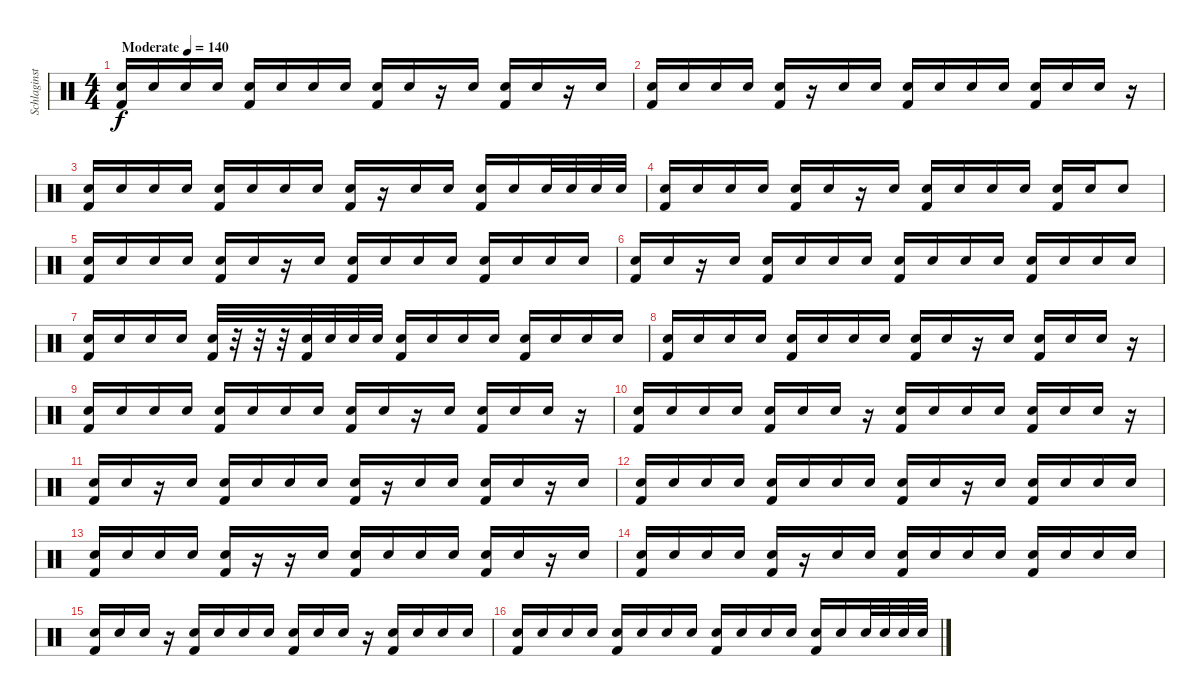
\track ("Schlaginstrumente - Auswahl" "Schlaginst") {instrument percussion}
\staff {score}
\articulation defaults
\ts (4 4)
\tempo (140 "Moderate")
\clef neutral
\ks c
("Electric Snare (hit)" "Kick (hit) 2").16{dy f} "Electric Snare (hit)".16 "Electric Snare (hit)".16 "Electric Snare (hit)".16 ("Electric Snare (hit)" "Kick (hit) 2").16 "Electric Snare (hit)".16 "Electric Snare (hit)".16 "Electric Snare (hit)".16 ("Electric Snare (hit)" "Kick (hit) 2").16 "Electric Snare (hit)".16 r.16 "Electric Snare (hit)".16 ("Electric Snare (hit)" "Kick (hit) 2").16 "Electric Snare (hit)".16 r.16 "Electric Snare (hit)".16 |
("Electric Snare (hit)" "Kick (hit) 2").16 "Electric Snare (hit)".16 "Electric Snare (hit)".16 "Electric Snare (hit)".16 ("Electric Snare (hit)" "Kick (hit) 2").16 r.16 "Electric Snare (hit)".16 "Electric Snare (hit)".16 ("Electric Snare (hit)" "Kick (hit) 2").16 "Electric Snare (hit)".16 "Electric Snare (hit)".16 "Electric Snare (hit)".16 ("Electric Snare (hit)" "Kick (hit) 2").16 "Electric Snare (hit)".16 "Electric Snare (hit)".16 r.16 |
("Electric Snare (hit)" "Kick (hit) 2").16 "Electric Snare (hit)".16 "Electric Snare (hit)".16 "Electric Snare (hit)".16 ("Electric Snare (hit)" "Kick (hit) 2").16 "Electric Snare (hit)".16 "Electric Snare (hit)".16 "Electric Snare (hit)".16 ("Electric Snare (hit)" "Kick (hit) 2").16 r.16 "Electric Snare (hit)".16 "Electric Snare (hit)".16 ("Electric Snare (hit)" "Kick (hit) 2").16 "Electric Snare (hit)".16 "Electric Snare (hit)".32 "Electric Snare (hit)".32 "Electric Snare (hit)".32 "Electric Snare (hit)".32 |
("Electric Snare (hit)" "Kick (hit) 2").16 "Electric Snare (hit)".16 "Electric Snare (hit)".16 "Electric Snare (hit)".16 ("Electric Snare (hit)" "Kick (hit) 2").16 "Electric Snare (hit)".16 r.16 "Electric Snare (hit)".16 ("Electric Snare (hit)" "Kick (hit) 2").16 "Electric Snare (hit)".16 "Electric Snare (hit)".16 "Electric Snare (hit)".16 ("Electric Snare (hit)" "Kick (hit) 2").16 "Electric Snare (hit)".16 "Electric Snare (hit)".8 |
("Electric Snare (hit)" "Kick (hit) 2").16 "Electric Snare (hit)".16 "Electric Snare (hit)".16 "Electric Snare (hit)".16 ("Electric Snare (hit)" "Kick (hit) 2").16 "Electric Snare (hit)".16 r.16 "Electric Snare (hit)".16 ("Electric Snare (hit)" "Kick (hit) 2").16 "Electric Snare (hit)".16 "Electric Snare (hit)".16 "Electric Snare (hit)".16 ("Electric Snare (hit)" "Kick (hit) 2").16 "Electric Snare (hit)".16 "Electric Snare (hit)".16 "Electric Snare (hit)".16 |
("Electric Snare (hit)" "Kick (hit) 2").16 "Electric Snare (hit)".16 r.16 "Electric Snare (hit)".16 ("Electric Snare (hit)" "Kick (hit) 2").16 "Electric Snare (hit)".16 "Electric Snare (hit)".16 "Electric Snare (hit)".16 ("Electric Snare (hit)" "Kick (hit) 2").16 "Electric Snare (hit)".16 "Electric Snare (hit)".16 "Electric Snare (hit)".16 ("Electric Snare (hit)" "Kick (hit) 2").16 "Electric Snare (hit)".16 "Electric Snare (hit)".16 "Electric Snare (hit)".16 |
("Electric Snare (hit)" "Kick (hit) 2").16 "Electric Snare (hit)".16 "Electric Snare (hit)".16 "Electric Snare (hit)".16 ("Electric Snare (hit)" "Kick (hit) 2").32 r.32 r.32 r.32 ("Electric Snare (hit)" "Kick (hit) 2").32 "Electric Snare (hit)".32 "Electric Snare (hit)".32 "Electric Snare (hit)".32 ("Electric Snare (hit)" "Kick (hit) 2").16 "Electric Snare (hit)".16 "Electric Snare (hit)".16 "Electric Snare (hit)".16 ("Electric Snare (hit)" "Kick (hit) 2").16 "Electric Snare (hit)".16 "Electric Snare (hit)".16 "Electric Snare (hit)".16 |
("Electric Snare (hit)" "Kick (hit) 2").16 "Electric Snare (hit)".16 "Electric Snare (hit)".16 "Electric Snare (hit)".16 ("Electric Snare (hit)" "Kick (hit) 2").16 "Electric Snare (hit)".16 "Electric Snare (hit)".16 "Electric Snare (hit)".16 ("Electric Snare (hit)" "Kick (hit) 2").16 "Electric Snare (hit)".16 r.16 "Electric Snare (hit)".16 ("Electric Snare (hit)" "Kick (hit) 2").16 "Electric Snare (hit)".16 "Electric Snare (hit)".16 r.16 |
("Electric Snare (hit)" "Kick (hit) 2").16 "Electric Snare (hit)".16 "Electric Snare (hit)".16 "Electric Snare (hit)".16 ("Electric Snare (hit)" "Kick (hit) 2").16 "Electric Snare (hit)".16 "Electric Snare (hit)".16 "Electric Snare (hit)".16 ("Electric Snare (hit)" "Kick (hit) 2").16 "Electric Snare (hit)".16 r.16 "Electric Snare (hit)".16 ("Electric Snare (hit)" "Kick (hit) 2").16 "Electric Snare (hit)".16 "Electric Snare (hit)".16 r.16 |
("Electric Snare (hit)" "Kick (hit) 2").16 "Electric Snare (hit)".16 "Electric Snare (hit)".16 "Electric Snare (hit)".16 ("Electric Snare (hit)" "Kick (hit) 2").16 "Electric Snare (hit)".16 "Electric Snare (hit)".16 r.16 ("Electric Snare (hit)" "Kick (hit) 2").16 "Electric Snare (hit)".16 "Electric Snare (hit)".16 "Electric Snare (hit)".16 ("Electric Snare (hit)" "Kick (hit) 2").16 "Electric Snare (hit)".16 "Electric Snare (hit)".16 r.16 |
("Electric Snare (hit)" "Kick (hit) 2").16 "Electric Snare (hit)".16 r.16 "Electric Snare (hit)".16 ("Electric Snare (hit)" "Kick (hit) 2").16 "Electric Snare (hit)".16 "Electric Snare (hit)".16 "Electric Snare (hit)".16 ("Electric Snare (hit)" "Kick (hit) 2").16 r.16 "Electric Snare (hit)".16 "Electric Snare (hit)".16 ("Electric Snare (hit)" "Kick (hit) 2").16 "Electric Snare (hit)".16 r.16 "Electric Snare (hit)".16 |
("Electric Snare (hit)" "Kick (hit) 2").16 "Electric Snare (hit)".16 "Electric Snare (hit)".16 "Electric Snare (hit)".16 ("Electric Snare (hit)" "Kick (hit) 2").16 "Electric Snare (hit)".16 "Electric Snare (hit)".16 "Electric Snare (hit)".16 ("Electric Snare (hit)" "Kick (hit) 2").16 "Electric Snare (hit)".16 r.16 "Electric Snare (hit)".16 ("Electric Snare (hit)" "Kick (hit) 2").16 "Electric Snare (hit)".16 "Electric Snare (hit)".16 "Electric Snare (hit)".16 |
("Electric Snare (hit)" "Kick (hit) 2").16 "Electric Snare (hit)".16 "Electric Snare (hit)".16 "Electric Snare (hit)".16 ("Electric Snare (hit)" "Kick (hit) 2").16 r.16 r.16 "Electric Snare (hit)".16 ("Electric Snare (hit)" "Kick (hit) 2").16 "Electric Snare (hit)".16 "Electric Snare (hit)".16 "Electric Snare (hit)".16 ("Electric Snare (hit)" "Kick (hit) 2").16 "Electric Snare (hit)".16 r.16 "Electric Snare (hit)".16 |
("Electric Snare (hit)" "Kick (hit) 2").16 "Electric Snare (hit)".16 "Electric Snare (hit)".16 "Electric Snare (hit)".16 ("Electric Snare (hit)" "Kick (hit) 2").16 r.16 "Electric Snare (hit)".16 "Electric Snare (hit)".16 ("Electric Snare (hit)" "Kick (hit) 2").16 "Electric Snare (hit)".16 "Electric Snare (hit)".16 "Electric Snare (hit)".16 ("Electric Snare (hit)" "Kick (hit) 2").16 "Electric Snare (hit)".16 "Electric Snare (hit)".16 "Electric Snare (hit)".16 |
("Electric Snare (hit)" "Kick (hit) 2").16 "Electric Snare (hit)".16 "Electric Snare (hit)".16 r.16 ("Electric Snare (hit)" "Kick (hit) 2").16 "Electric Snare (hit)".16 "Electric Snare (hit)".16 "Electric Snare (hit)".16 ("Electric Snare (hit)" "Kick (hit) 2").16 "Electric Snare (hit)".16 "Electric Snare (hit)".16 r.16 ("Electric Snare (hit)" "Kick (hit) 2").16 "Electric Snare (hit)".16 "Electric Snare (hit)".16 "Electric Snare (hit)".16 |
("Electric Snare (hit)" "Kick (hit) 2").16 "Electric Snare (hit)".16 "Electric Snare (hit)".16 "Electric Snare (hit)".16 ("Electric Snare (hit)" "Kick (hit) 2").16 "Electric Snare (hit)".16 "Electric Snare (hit)".16 "Electric Snare (hit)".16 ("Electric Snare (hit)" "Kick (hit) 2").16 "Electric Snare (hit)".16 "Electric Snare (hit)".16 "Electric Snare (hit)".16 ("Electric Snare (hit)" "Kick (hit) 2").16 "Electric Snare (hit)".16 "Electric Snare (hit)".32 "Electric Snare (hit)".32 "Electric Snare (hit)".32 "Electric Snare (hit)".32
